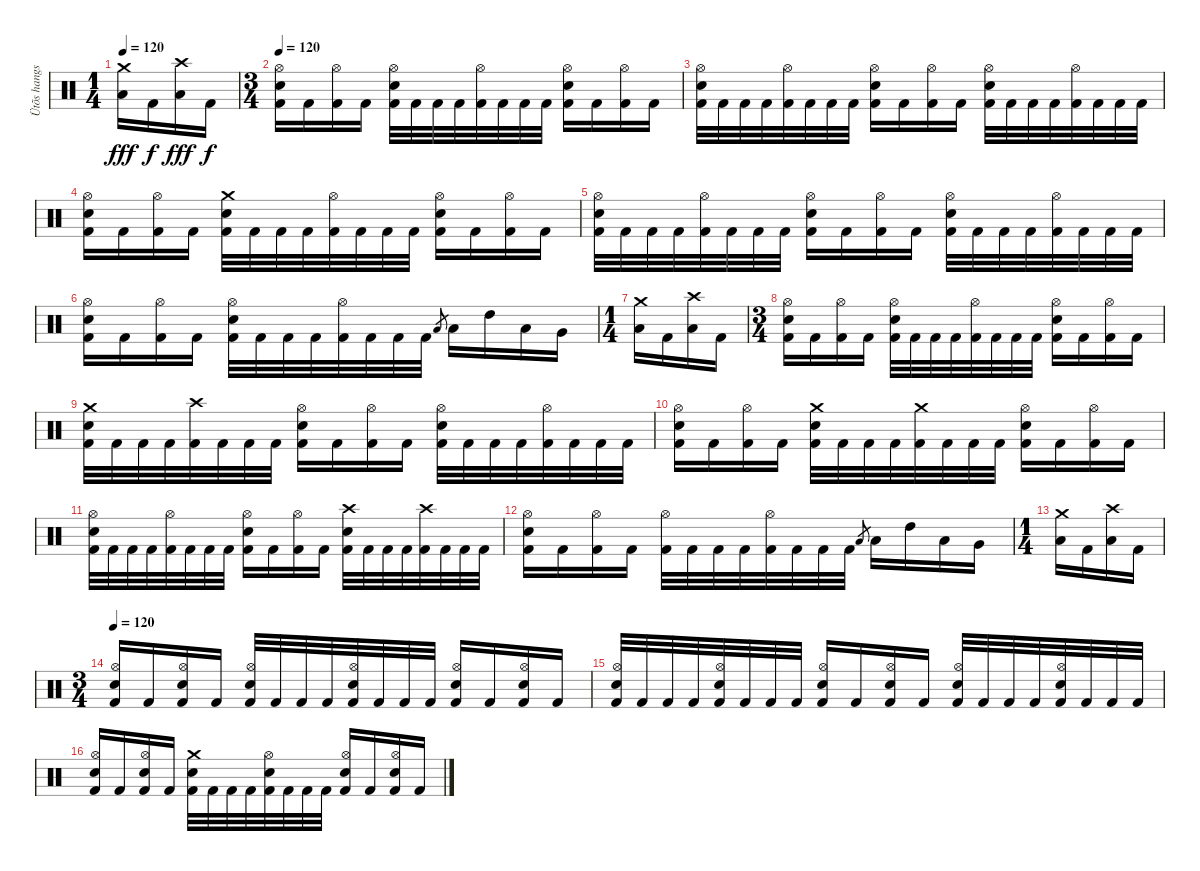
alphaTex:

\track ("Ütõs hangszer" "Ütõs hangs") {instrument percussion}
\staff {score}
\articulation defaults
\ts (1 4)
\tempo 120
\clef neutral
\ks c
("Crash medium (hit)" "Low Floor Tom (hit)").16{dy fff} "Kick (hit) 2".16{dy f} ("Crash high (hit)" "Low Floor Tom (hit)").16{dy fff} "Kick (hit) 2".16{dy f} |
\ts (3 4)
\tempo 120
("Hi-Hat (open)" "Electric Snare (hit)" "Kick (hit) 2").16 "Kick (hit) 2".16 ("Hi-Hat (open)" "Kick (hit) 2").16 "Kick (hit) 2".16 ("Hi-Hat (open)" "Electric Snare (hit)" "Kick (hit) 2").32 "Kick (hit) 2".32 "Kick (hit) 2".32 "Kick (hit) 2".32 ("Hi-Hat (open)" "Kick (hit) 2").32 "Kick (hit) 2".32 "Kick (hit) 2".32 "Kick (hit) 2".32 ("Hi-Hat (open)" "Electric Snare (hit)" "Kick (hit) 2").16 "Kick (hit) 2".16 ("Hi-Hat (open)" "Kick (hit) 2").16 "Kick (hit) 2".16 |
("Hi-Hat (open)" "Electric Snare (hit)" "Kick (hit) 2").32 "Kick (hit) 2".32 "Kick (hit) 2".32 "Kick (hit) 2".32 ("Hi-Hat (open)" "Kick (hit) 2").32 "Kick (hit) 2".32 "Kick (hit) 2".32 "Kick (hit) 2".32 ("Hi-Hat (open)" "Electric Snare (hit)" "Kick (hit) 2").16 "Kick (hit) 2".16 ("Hi-Hat (open)" "Kick (hit) 2").16 "Kick (hit) 2".16 ("Hi-Hat (open)" "Electric Snare (hit)" "Kick (hit) 2").32 "Kick (hit) 2".32 "Kick (hit) 2".32 "Kick (hit) 2".32 ("Hi-Hat (open)" "Kick (hit) 2").32 "Kick (hit) 2".32 "Kick (hit) 2".32 "Kick (hit) 2".32 |
("Hi-Hat (open)" "Electric Snare (hit)" "Kick (hit) 2").16 "Kick (hit) 2".16 ("Hi-Hat (open)" "Kick (hit) 2").16 "Kick (hit) 2".16 ("Crash medium (hit)" "Electric Snare (hit)" "Kick (hit) 2").32 "Kick (hit) 2".32 "Kick (hit) 2".32 "Kick (hit) 2".32 ("Hi-Hat (open)" "Kick (hit) 2").32 "Kick (hit) 2".32 "Kick (hit) 2".32 "Kick (hit) 2".32 ("Hi-Hat (open)" "Electric Snare (hit)" "Kick (hit) 2").16 "Kick (hit) 2".16 ("Hi-Hat (open)" "Kick (hit) 2").16 "Kick (hit) 2".16 |
("Hi-Hat (open)" "Electric Snare (hit)" "Kick (hit) 2").32 "Kick (hit) 2".32 "Kick (hit) 2".32 "Kick (hit) 2".32 ("Hi-Hat (open)" "Kick (hit) 2").32 "Kick (hit) 2".32 "Kick (hit) 2".32 "Kick (hit) 2".32 ("Hi-Hat (open)" "Electric Snare (hit)" "Kick (hit) 2").16 "Kick (hit) 2".16 ("Hi-Hat (open)" "Kick (hit) 2").16 "Kick (hit) 2".16 ("Hi-Hat (open)" "Electric Snare (hit)" "Kick (hit) 2").32 "Kick (hit) 2".32 "Kick (hit) 2".32 "Kick (hit) 2".32 ("Hi-Hat (open)" "Kick (hit) 2").32 "Kick (hit) 2".32 "Kick (hit) 2".32 "Kick (hit) 2".32 |
("Hi-Hat (open)" "Electric Snare (hit)" "Kick (hit) 2").16 "Kick (hit) 2".16 ("Hi-Hat (open)" "Kick (hit) 2").16 "Kick (hit) 2".16 ("Hi-Hat (open)" "Electric Snare (hit)" "Kick (hit) 2").32 "Kick (hit) 2".32 "Kick (hit) 2".32 "Kick (hit) 2".32 ("Hi-Hat (open)" "Kick (hit) 2").32 "Kick (hit) 2".32 "Kick (hit) 2".32 "Kick (hit) 2".32 "Low Tom (hit)".8{gr} "Low Tom (hit)".16 "High Tom (hit)".16 "Low Tom (hit)".16 "Very Low Tom (hit)".16 |
\ts (1 4)
("Crash medium (hit)" "Low Floor Tom (hit)").16 "Kick (hit) 2".16 ("Crash high (hit)" "Low Floor Tom (hit)").16 "Kick (hit) 2".16 |
\ts (3 4)
("Hi-Hat (open)" "Electric Snare (hit)" "Kick (hit) 2").16 "Kick (hit) 2".16 ("Hi-Hat (open)" "Kick (hit) 2").16 "Kick (hit) 2".16 ("Hi-Hat (open)" "Electric Snare (hit)" "Kick (hit) 2").32 "Kick (hit) 2".32 "Kick (hit) 2".32 "Kick (hit) 2".32 ("Hi-Hat (open)" "Kick (hit) 2").32 "Kick (hit) 2".32 "Kick (hit) 2".32 "Kick (hit) 2".32 ("Hi-Hat (open)" "Electric Snare (hit)" "Kick (hit) 2").16 "Kick (hit) 2".16 ("Hi-Hat (open)" "Kick (hit) 2").16 "Kick (hit) 2".16 |
("Crash medium (hit)" "Electric Snare (hit)" "Kick (hit) 2").32 "Kick (hit) 2".32 "Kick (hit) 2".32 "Kick (hit) 2".32 ("Crash high (hit)" "Kick (hit) 2").32 "Kick (hit) 2".32 "Kick (hit) 2".32 "Kick (hit) 2".32 ("Hi-Hat (open)" "Electric Snare (hit)" "Kick (hit) 2").16 "Kick (hit) 2".16 ("Hi-Hat (open)" "Kick (hit) 2").16 "Kick (hit) 2".16 ("Hi-Hat (open)" "Electric Snare (hit)" "Kick (hit) 2").32 "Kick (hit) 2".32 "Kick (hit) 2".32 "Kick (hit) 2".32 ("Hi-Hat (open)" "Kick (hit) 2").32 "Kick (hit) 2".32 "Kick (hit) 2".32 "Kick (hit) 2".32 |
("Hi-Hat (open)" "Electric Snare (hit)" "Kick (hit) 2").16 "Kick (hit) 2".16 ("Hi-Hat (open)" "Kick (hit) 2").16 "Kick (hit) 2".16 ("Crash medium (hit)" "Electric Snare (hit)" "Kick (hit) 2").32 "Kick (hit) 2".32 "Kick (hit) 2".32 "Kick (hit) 2".32 ("Crash medium (hit)" "Kick (hit) 2").32 "Kick (hit) 2".32 "Kick (hit) 2".32 "Kick (hit) 2".32 ("Hi-Hat (open)" "Electric Snare (hit)" "Kick (hit) 2").16 "Kick (hit) 2".16 ("Hi-Hat (open)" "Kick (hit) 2").16 "Kick (hit) 2".16 |
("Hi-Hat (open)" "Electric Snare (hit)" "Kick (hit) 2").32 "Kick (hit) 2".32 "Kick (hit) 2".32 "Kick (hit) 2".32 ("Hi-Hat (open)" "Kick (hit) 2").32 "Kick (hit) 2".32 "Kick (hit) 2".32 "Kick (hit) 2".32 ("Hi-Hat (open)" "Electric Snare (hit)" "Kick (hit) 2").16 "Kick (hit) 2".16 ("Hi-Hat (open)" "Kick (hit) 2").16 "Kick (hit) 2".16 ("Crash high (hit)" "Electric Snare (hit)" "Kick (hit) 2").32 "Kick (hit) 2".32 "Kick (hit) 2".32 "Kick (hit) 2".32 ("Crash high (hit)" "Kick (hit) 2").32 "Kick (hit) 2".32 "Kick (hit) 2".32 "Kick (hit) 2".32 |
("Hi-Hat (open)" "Electric Snare (hit)" "Kick (hit) 2").16 "Kick (hit) 2".16 ("Hi-Hat (open)" "Kick (hit) 2").16 "Kick (hit) 2".16 ("Hi-Hat (open)" "Kick (hit) 2").32 "Kick (hit) 2".32 "Kick (hit) 2".32 "Kick (hit) 2".32 ("Hi-Hat (open)" "Kick (hit) 2").32 "Kick (hit) 2".32 "Kick (hit) 2".32 "Kick (hit) 2".32 "Low Tom (hit)".8{gr} "Low Tom (hit)".16 "High Tom (hit)".16 "Low Tom (hit)".16 "Very Low Tom (hit)".16 |
\ts (1 4)
("Crash medium (hit)" "Low Floor Tom (hit)").16 "Kick (hit) 2".16 ("Crash high (hit)" "Low Floor Tom (hit)").16 "Kick (hit) 2".16 |
\ts (3 4)
\tempo 120
("Hi-Hat (open)" "Electric Snare (hit)" "Kick (hit) 2").16 "Kick (hit) 2".16 ("Hi-Hat (open)" "Electric Snare (hit)" "Kick (hit) 2").16 "Kick (hit) 2".16 ("Hi-Hat (open)" "Electric Snare (hit)" "Kick (hit) 2").32 "Kick (hit) 2".32 "Kick (hit) 2".32 "Kick (hit) 2".32 ("Hi-Hat (open)" "Electric Snare (hit)" "Kick (hit) 2").32 "Kick (hit) 2".32 "Kick (hit) 2".32 "Kick (hit) 2".32 ("Hi-Hat (open)" "Electric Snare (hit)" "Kick (hit) 2").16 "Kick (hit) 2".16 ("Hi-Hat (open)" "Electric Snare (hit)" "Kick (hit) 2").16 "Kick (hit) 2".16 |
("Hi-Hat (open)" "Electric Snare (hit)" "Kick (hit) 2").32 "Kick (hit) 2".32 "Kick (hit) 2".32 "Kick (hit) 2".32 ("Hi-Hat (open)" "Electric Snare (hit)" "Kick (hit) 2").32 "Kick (hit) 2".32 "Kick (hit) 2".32 "Kick (hit) 2".32 ("Hi-Hat (open)" "Electric Snare (hit)" "Kick (hit) 2").16 "Kick (hit) 2".16 ("Hi-Hat (open)" "Electric Snare (hit)" "Kick (hit) 2").16 "Kick (hit) 2".16 ("Hi-Hat (open)" "Electric Snare (hit)" "Kick (hit) 2").32 "Kick (hit) 2".32 "Kick (hit) 2".32 "Kick (hit) 2".32 ("Hi-Hat (open)" "Electric Snare (hit)" "Kick (hit) 2").32 "Kick (hit) 2".32 "Kick (hit) 2".32 "Kick (hit) 2".32 |
("Hi-Hat (open)" "Electric Snare (hit)" "Kick (hit) 2").16 "Kick (hit) 2".16 ("Hi-Hat (open)" "Electric Snare (hit)" "Kick (hit) 2").16 "Kick (hit) 2".16 ("Crash medium (hit)" "Electric Snare (hit)" "Kick (hit) 2").32 "Kick (hit) 2".32 "Kick (hit) 2".32 "Kick (hit) 2".32 ("Hi-Hat (open)" "Electric Snare (hit)" "Kick (hit) 2").32 "Kick (hit) 2".32 "Kick (hit) 2".32 "Kick (hit) 2".32 ("Hi-Hat (open)" "Electric Snare (hit)" "Kick (hit) 2").16 "Kick (hit) 2".16 ("Hi-Hat (open)" "Electric Snare (hit)" "Kick (hit) 2").16 "Kick (hit) 2".16
